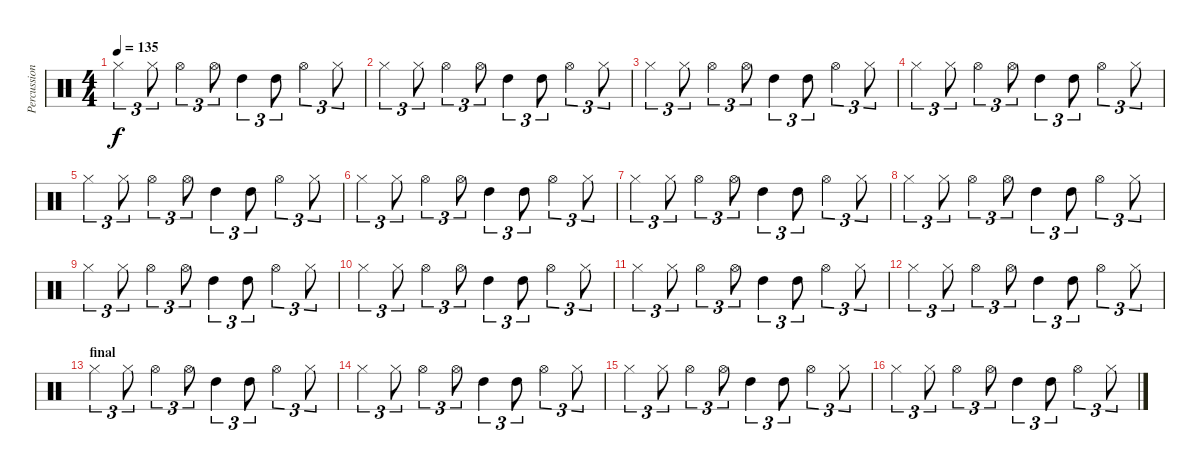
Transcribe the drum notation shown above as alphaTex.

\track ("Percussions" "Percussion") {instrument percussion}
\staff {score}
\articulation defaults
\ts (4 4)
\tempo 135
\clef neutral
\ks c "Hi-Hat (closed)".4{tu (3 2) dy f} "Hi-Hat (closed)".8{tu (3 2)} "Hi-Hat (open)".4{tu (3 2)} "Hi-Hat (open)".8{tu (3 2)} "High Tom (hit)".4{tu (3 2)} "High Tom (hit)".8{tu (3 2)} "Hi-Hat (open)".4{tu (3 2)} "Hi-Hat (closed)".8{tu (3 2)}
|
"Hi-Hat (closed)".4{tu (3 2)} "Hi-Hat (closed)".8{tu (3 2)} "Hi-Hat (open)".4{tu (3 2)} "Hi-Hat (open)".8{tu (3 2)} "High Tom (hit)".4{tu (3 2)} "High Tom (hit)".8{tu (3 2)} "Hi-Hat (open)".4{tu (3 2)} "Hi-Hat (closed)".8{tu (3 2)} |
"Hi-Hat (closed)".4{tu (3 2)} "Hi-Hat (closed)".8{tu (3 2)} "Hi-Hat (open)".4{tu (3 2)} "Hi-Hat (open)".8{tu (3 2)} "High Tom (hit)".4{tu (3 2)} "High Tom (hit)".8{tu (3 2)} "Hi-Hat (open)".4{tu (3 2)} "Hi-Hat (closed)".8{tu (3 2)} |
"Hi-Hat (closed)".4{tu (3 2)} "Hi-Hat (closed)".8{tu (3 2)} "Hi-Hat (open)".4{tu (3 2)} "Hi-Hat (open)".8{tu (3 2)} "High Tom (hit)".4{tu (3 2)} "High Tom (hit)".8{tu (3 2)} "Hi-Hat (open)".4{tu (3 2)} "Hi-Hat (closed)".8{tu (3 2)} |
"Hi-Hat (closed)".4{tu (3 2)} "Hi-Hat (closed)".8{tu (3 2)} "Hi-Hat (open)".4{tu (3 2)} "Hi-Hat (open)".8{tu (3 2)} "High Tom (hit)".4{tu (3 2)} "High Tom (hit)".8{tu (3 2)} "Hi-Hat (open)".4{tu (3 2)} "Hi-Hat (closed)".8{tu (3 2)} |
"Hi-Hat (closed)".4{tu (3 2)} "Hi-Hat (closed)".8{tu (3 2)} "Hi-Hat (open)".4{tu (3 2)} "Hi-Hat (open)".8{tu (3 2)} "High Tom (hit)".4{tu (3 2)} "High Tom (hit)".8{tu (3 2)} "Hi-Hat (open)".4{tu (3 2)} "Hi-Hat (closed)".8{tu (3 2)} |
"Hi-Hat (closed)".4{tu (3 2)} "Hi-Hat (closed)".8{tu (3 2)} "Hi-Hat (open)".4{tu (3 2)} "Hi-Hat (open)".8{tu (3 2)} "High Tom (hit)".4{tu (3 2)} "High Tom (hit)".8{tu (3 2)} "Hi-Hat (open)".4{tu (3 2)} "Hi-Hat (closed)".8{tu (3 2)} |
"Hi-Hat (closed)".4{tu (3 2)} "Hi-Hat (closed)".8{tu (3 2)} "Hi-Hat (open)".4{tu (3 2)} "Hi-Hat (open)".8{tu (3 2)} "High Tom (hit)".4{tu (3 2)} "High Tom (hit)".8{tu (3 2)} "Hi-Hat (open)".4{tu (3 2)} "Hi-Hat (closed)".8{tu (3 2)} |
"Hi-Hat (closed)".4{tu (3 2)} "Hi-Hat (closed)".8{tu (3 2)} "Hi-Hat (open)".4{tu (3 2)} "Hi-Hat (open)".8{tu (3 2)} "High Tom (hit)".4{tu (3 2)} "High Tom (hit)".8{tu (3 2)} "Hi-Hat (open)".4{tu (3 2)} "Hi-Hat (closed)".8{tu (3 2)} |
"Hi-Hat (closed)".4{tu (3 2)} "Hi-Hat (closed)".8{tu (3 2)} "Hi-Hat (open)".4{tu (3 2)} "Hi-Hat (open)".8{tu (3 2)} "High Tom (hit)".4{tu (3 2)} "High Tom (hit)".8{tu (3 2)} "Hi-Hat (open)".4{tu (3 2)} "Hi-Hat (closed)".8{tu (3 2)} |
"Hi-Hat (closed)".4{tu (3 2)} "Hi-Hat (closed)".8{tu (3 2)} "Hi-Hat (open)".4{tu (3 2)} "Hi-Hat (open)".8{tu (3 2)} "High Tom (hit)".4{tu (3 2)} "High Tom (hit)".8{tu (3 2)} "Hi-Hat (open)".4{tu (3 2)} "Hi-Hat (closed)".8{tu (3 2)} |
"Hi-Hat (closed)".4{tu (3 2)} "Hi-Hat (closed)".8{tu (3 2)} "Hi-Hat (open)".4{tu (3 2)} "Hi-Hat (open)".8{tu (3 2)} "High Tom (hit)".4{tu (3 2)} "High Tom (hit)".8{tu (3 2)} "Hi-Hat (open)".4{tu (3 2)} "Hi-Hat (closed)".8{tu (3 2)} |
\section ("" "final")
"Hi-Hat (closed)".4{tu (3 2)} "Hi-Hat (closed)".8{tu (3 2)} "Hi-Hat (open)".4{tu (3 2)} "Hi-Hat (open)".8{tu (3 2)} "High Tom (hit)".4{tu (3 2)} "High Tom (hit)".8{tu (3 2)} "Hi-Hat (open)".4{tu (3 2)} "Hi-Hat (closed)".8{tu (3 2)} |
"Hi-Hat (closed)".4{tu (3 2)} "Hi-Hat (closed)".8{tu (3 2)} "Hi-Hat (open)".4{tu (3 2)} "Hi-Hat (open)".8{tu (3 2)} "High Tom (hit)".4{tu (3 2)} "High Tom (hit)".8{tu (3 2)} "Hi-Hat (open)".4{tu (3 2)} "Hi-Hat (closed)".8{tu (3 2)} |
"Hi-Hat (closed)".4{tu (3 2)} "Hi-Hat (closed)".8{tu (3 2)} "Hi-Hat (open)".4{tu (3 2)} "Hi-Hat (open)".8{tu (3 2)} "High Tom (hit)".4{tu (3 2)} "High Tom (hit)".8{tu (3 2)} "Hi-Hat (open)".4{tu (3 2)} "Hi-Hat (closed)".8{tu (3 2)} |
"Hi-Hat (closed)".4{tu (3 2)} "Hi-Hat (closed)".8{tu (3 2)} "Hi-Hat (open)".4{tu (3 2)} "Hi-Hat (open)".8{tu (3 2)} "High Tom (hit)".4{tu (3 2)} "High Tom (hit)".8{tu (3 2)} "Hi-Hat (open)".4{tu (3 2)} "Hi-Hat (closed)".8{tu (3 2)}
